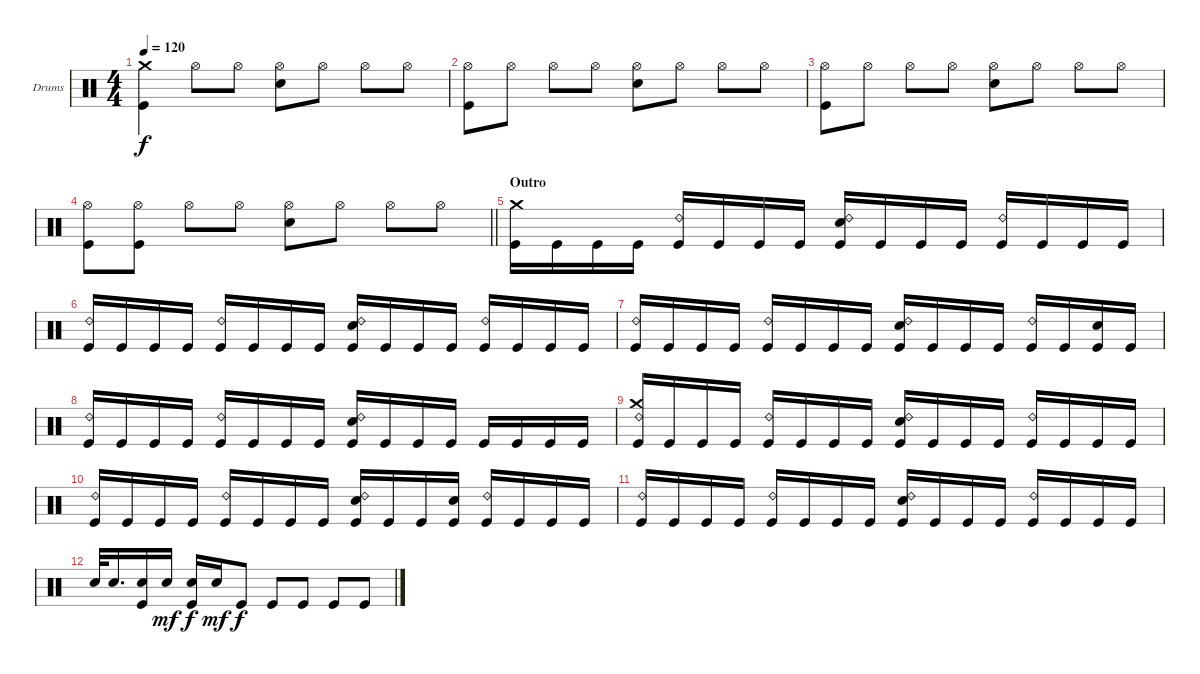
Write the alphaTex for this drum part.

\defaultSystemsLayout 4
\bracketExtendMode groupsimilarinstruments
\firstSystemTrackNameOrientation horizontal
\otherSystemsTrackNameOrientation horizontal
\track ("Drums" "Drums") {instrument percussion}
\staff {score}
\articulation defaults
\ts (4 4)
\tempo 120
\clef neutral
\ks c
("Kick (hit)" "Crash medium (hit)").4{dy f} "Hi-Hat (open)".8 "Hi-Hat (open)".8 ("Hi-Hat (open)" "Snare (hit) 2").8 "Hi-Hat (open)".8 "Hi-Hat (open)".8 "Hi-Hat (open)".8 |
("Kick (hit)" "Hi-Hat (open)").8 "Hi-Hat (open)".8 "Hi-Hat (open)".8 "Hi-Hat (open)".8 ("Hi-Hat (open)" "Snare (hit) 2").8 "Hi-Hat (open)".8 "Hi-Hat (open)".8 "Hi-Hat (open)".8 |
("Kick (hit)" "Hi-Hat (open)").8 "Hi-Hat (open)".8 "Hi-Hat (open)".8 "Hi-Hat (open)".8 ("Hi-Hat (open)" "Snare (hit) 2").8 "Hi-Hat (open)".8 "Hi-Hat (open)".8 "Hi-Hat (open)".8 |
\barLineRight lightlight
("Kick (hit)" "Hi-Hat (open)").8 ("Hi-Hat (open)" "Kick (hit)").8 "Hi-Hat (open)".8 "Hi-Hat (open)".8 ("Hi-Hat (open)" "Snare (hit) 2").8 "Hi-Hat (open)".8 "Hi-Hat (open)".8 "Hi-Hat (open)".8 |
\section ("" "Outro")
("Kick (hit)" "Crash medium (hit)").16 "Kick (hit)".16 "Kick (hit)".16 "Kick (hit)".16 ("Kick (hit)" "Ride (bell) 2").16 "Kick (hit)".16 "Kick (hit)".16 "Kick (hit)".16 ("Ride (bell) 2" "Snare (hit) 2" "Kick (hit)").16 "Kick (hit)".16 "Kick (hit)".16 "Kick (hit)".16 ("Ride (bell) 2" "Kick (hit)").16 "Kick (hit)".16 "Kick (hit)".16 "Kick (hit)".16 |
("Kick (hit)" "Ride (bell) 2").16 "Kick (hit)".16 "Kick (hit)".16 "Kick (hit)".16 ("Kick (hit)" "Ride (bell) 2").16 "Kick (hit)".16 "Kick (hit)".16 "Kick (hit)".16 ("Ride (bell) 2" "Snare (hit) 2" "Kick (hit)").16 "Kick (hit)".16 "Kick (hit)".16 "Kick (hit)".16 ("Ride (bell) 2" "Kick (hit)").16 "Kick (hit)".16 "Kick (hit)".16 "Kick (hit)".16 |
("Kick (hit)" "Ride (bell) 2").16 "Kick (hit)".16 "Kick (hit)".16 "Kick (hit)".16 ("Kick (hit)" "Ride (bell) 2").16 "Kick (hit)".16 "Kick (hit)".16 "Kick (hit)".16 ("Ride (bell) 2" "Snare (hit) 2" "Kick (hit)").16 "Kick (hit)".16 "Kick (hit)".16 "Kick (hit)".16 ("Kick (hit)" "Ride (bell) 2").16 "Kick (hit)".16 ("Kick (hit)" "Snare (hit) 2").16 "Kick (hit)".16 |
("Kick (hit)" "Ride (bell) 2").16 "Kick (hit)".16 "Kick (hit)".16 "Kick (hit)".16 ("Kick (hit)" "Ride (bell) 2").16 "Kick (hit)".16 "Kick (hit)".16 "Kick (hit)".16 ("Ride (bell) 2" "Snare (hit) 2" "Kick (hit)").16 "Kick (hit)".16 "Kick (hit)".16 "Kick (hit)".16 "Kick (hit)".16 "Kick (hit)".16 "Kick (hit)".16 "Kick (hit)".16 |
("Kick (hit)" "Ride (bell) 2" "Crash medium (hit)").16 "Kick (hit)".16 "Kick (hit)".16 "Kick (hit)".16 ("Kick (hit)" "Ride (bell) 2").16 "Kick (hit)".16 "Kick (hit)".16 "Kick (hit)".16 ("Ride (bell) 2" "Snare (hit) 2" "Kick (hit)").16 "Kick (hit)".16 "Kick (hit)".16 "Kick (hit)".16 ("Ride (bell) 2" "Kick (hit)").16 "Kick (hit)".16 "Kick (hit)".16 "Kick (hit)".16 |
("Kick (hit)" "Ride (bell) 2").16 "Kick (hit)".16 "Kick (hit)".16 "Kick (hit)".16 ("Kick (hit)" "Ride (bell) 2").16 "Kick (hit)".16 "Kick (hit)".16 "Kick (hit)".16 ("Ride (bell) 2" "Snare (hit) 2" "Kick (hit)").16 "Kick (hit)".16 "Kick (hit)".16 ("Kick (hit)" "Snare (hit) 2").16 ("Ride (bell) 2" "Kick (hit)").16 "Kick (hit)".16 "Kick (hit)".16 "Kick (hit)".16 |
("Kick (hit)" "Ride (bell) 2").16 "Kick (hit)".16 "Kick (hit)".16 "Kick (hit)".16 ("Kick (hit)" "Ride (bell) 2").16 "Kick (hit)".16 "Kick (hit)".16 "Kick (hit)".16 ("Ride (bell) 2" "Snare (hit) 2" "Kick (hit)").16 "Kick (hit)".16 "Kick (hit)".16 "Kick (hit)".16 ("Ride (bell) 2" "Kick (hit)").16 "Kick (hit)".16 "Kick (hit)".16 "Kick (hit)".16 |
"Snare (hit) 2".32 "Snare (hit) 2".16{d} ("Kick (hit)" "Snare (hit) 2").16 "Snare (hit) 2".16{dy mf} ("Kick (hit)" "Snare (hit) 2").16{dy f} "Snare (hit) 2".16{dy mf} "Kick (hit)".8{dy f} "Kick (hit)".8 "Kick (hit)".8 "Kick (hit)".8 "Kick (hit)".8
